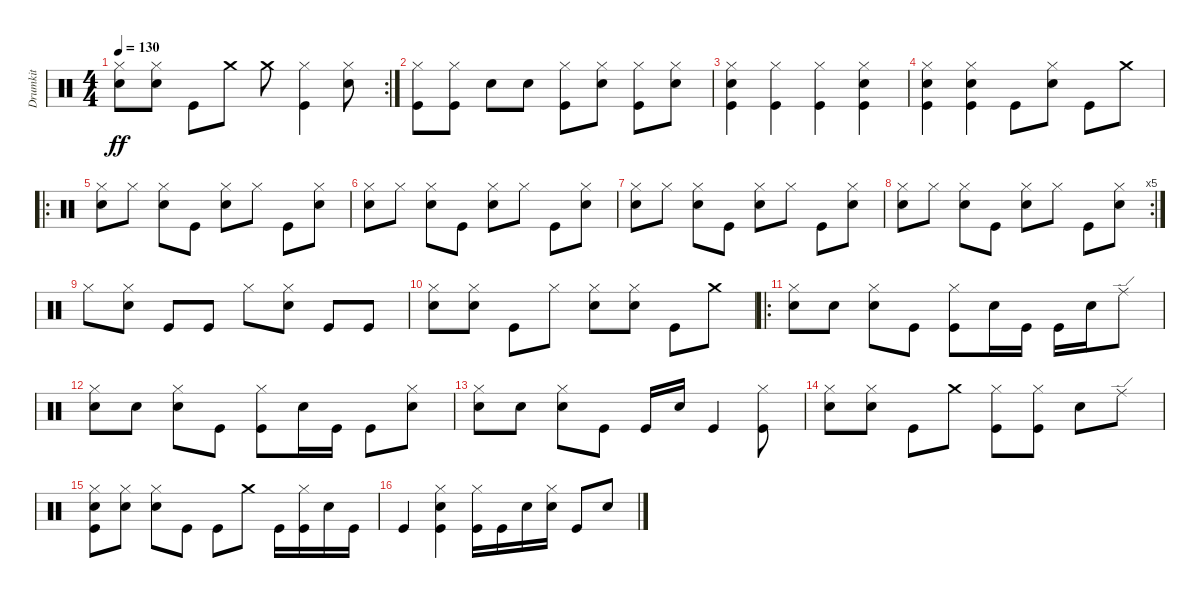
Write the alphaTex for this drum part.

\track ("Drumkit" "Drumkit") {instrument percussion}
\staff {score}
\articulation defaults
\rc 2
\ts (4 4)
\tempo 130
\clef neutral
\ks c
("Hi-Hat (closed)" "Snare (hit) 2").8{dy ff} ("Hi-Hat (closed)" "Snare (hit) 2").8 "Kick (hit)".8 "Crash medium (hit)".8 "Crash medium (hit)".8 ("Hi-Hat (closed)" "Kick (hit)").4 ("Hi-Hat (closed)" "Snare (hit) 2").8 |
("Kick (hit)" "Hi-Hat (closed)").8 ("Kick (hit)" "Hi-Hat (closed)").8 "Snare (hit) 2".8 "Snare (hit) 2".8 ("Kick (hit)" "Hi-Hat (closed)").8 ("Snare (hit) 2" "Hi-Hat (closed)").8 ("Kick (hit)" "Hi-Hat (closed)").8 ("Snare (hit) 2" "Hi-Hat (closed)").8 |
("Hi-Hat (closed)" "Snare (hit) 2" "Kick (hit)").4 ("Kick (hit)" "Hi-Hat (closed)").4 ("Kick (hit)" "Hi-Hat (closed)").4 ("Kick (hit)" "Snare (hit) 2" "Hi-Hat (closed)").4 |
("Kick (hit)" "Snare (hit) 2" "Hi-Hat (closed)").4 ("Kick (hit)" "Snare (hit) 2" "Hi-Hat (closed)").4 "Kick (hit)".8 ("Snare (hit) 2" "Hi-Hat (closed)").8 "Kick (hit)".8 "Crash medium (hit)".8 |
\ro
("Snare (hit) 2" "Hi-Hat (closed)").8 "Hi-Hat (closed)".8 ("Snare (hit) 2" "Hi-Hat (closed)").8 "Kick (hit)".8 ("Hi-Hat (closed)" "Snare (hit) 2").8 "Hi-Hat (closed)".8 "Kick (hit)".8 ("Snare (hit) 2" "Hi-Hat (closed)").8 |
("Snare (hit) 2" "Hi-Hat (closed)").8 "Hi-Hat (closed)".8 ("Snare (hit) 2" "Hi-Hat (closed)").8 "Kick (hit)".8 ("Hi-Hat (closed)" "Snare (hit) 2").8 "Hi-Hat (closed)".8 "Kick (hit)".8 ("Snare (hit) 2" "Hi-Hat (closed)").8 |
("Snare (hit) 2" "Hi-Hat (closed)").8 "Hi-Hat (closed)".8 ("Snare (hit) 2" "Hi-Hat (closed)").8 "Kick (hit)".8 ("Hi-Hat (closed)" "Snare (hit) 2").8 "Hi-Hat (closed)".8 "Kick (hit)".8 ("Snare (hit) 2" "Hi-Hat (closed)").8 |
\rc 5
("Snare (hit) 2" "Hi-Hat (closed)").8 "Hi-Hat (closed)".8 ("Snare (hit) 2" "Hi-Hat (closed)").8 "Kick (hit)".8 ("Hi-Hat (closed)" "Snare (hit) 2").8 "Hi-Hat (closed)".8 "Kick (hit)".8 ("Snare (hit) 2" "Hi-Hat (closed)").8 |
"Hi-Hat (closed)".8 ("Snare (hit) 2" "Hi-Hat (closed)").8 "Kick (hit)".8 "Kick (hit)".8 "Hi-Hat (closed)".8 ("Snare (hit) 2" "Hi-Hat (closed)").8 "Kick (hit)".8 "Kick (hit)".8 |
("Hi-Hat (closed)" "Snare (hit) 2").8 ("Hi-Hat (closed)" "Snare (hit) 2").8 "Kick (hit)".8 "Hi-Hat (closed)".8 ("Hi-Hat (closed)" "Snare (hit) 2").8 ("Hi-Hat (closed)" "Snare (hit) 2").8 "Kick (hit)".8 "Crash medium (hit)".8 |
\ro
("Snare (hit) 2" "Hi-Hat (closed)").8 "Snare (hit) 2".8 ("Hi-Hat (closed)" "Snare (hit) 2").8 "Kick (hit)".8 ("Kick (hit)" "Hi-Hat (closed)").8 "Snare (hit) 2".16 "Kick (hit)".16 "Kick (hit)".16 "Snare (hit) 2".16 "Ride (edge)".8 |
("Snare (hit) 2" "Hi-Hat (closed)").8 "Snare (hit) 2".8 ("Hi-Hat (closed)" "Snare (hit) 2").8 "Kick (hit)".8 ("Kick (hit)" "Hi-Hat (closed)").8 "Snare (hit) 2".16 "Kick (hit)".16 "Kick (hit)".8 ("Snare (hit) 2" "Hi-Hat (closed)").8 |
("Snare (hit) 2" "Hi-Hat (closed)").8 "Snare (hit) 2".8 ("Hi-Hat (closed)" "Snare (hit) 2").8 "Kick (hit)".8 "Kick (hit)".16 "Snare (hit) 2".16 "Kick (hit)".4 ("Kick (hit)" "Hi-Hat (closed)").8 |
("Hi-Hat (closed)" "Snare (hit) 2").8 ("Hi-Hat (closed)" "Snare (hit) 2").8 "Kick (hit)".8 "Crash medium (hit)".8 ("Kick (hit)" "Hi-Hat (closed)").8 ("Kick (hit)" "Hi-Hat (closed)").8 "Snare (hit) 2".8 "Ride (edge)".8 |
("Snare (hit) 2" "Kick (hit)" "Hi-Hat (closed)").8 ("Snare (hit) 2" "Hi-Hat (closed)").8 ("Snare (hit) 2" "Hi-Hat (closed)").8 "Kick (hit)".8 "Kick (hit)".8 "Crash medium (hit)".8 "Kick (hit)".16 ("Kick (hit)" "Hi-Hat (closed)").16 "Snare (hit) 2".16 "Kick (hit)".16 |
"Kick (hit)".4 ("Kick (hit)" "Hi-Hat (closed)" "Snare (hit) 2").4 ("Kick (hit)" "Hi-Hat (closed)").16 "Kick (hit)".16 "Snare (hit) 2".16 ("Snare (hit) 2" "Hi-Hat (closed)").16 "Kick (hit)".8 "Snare (hit) 2".8
